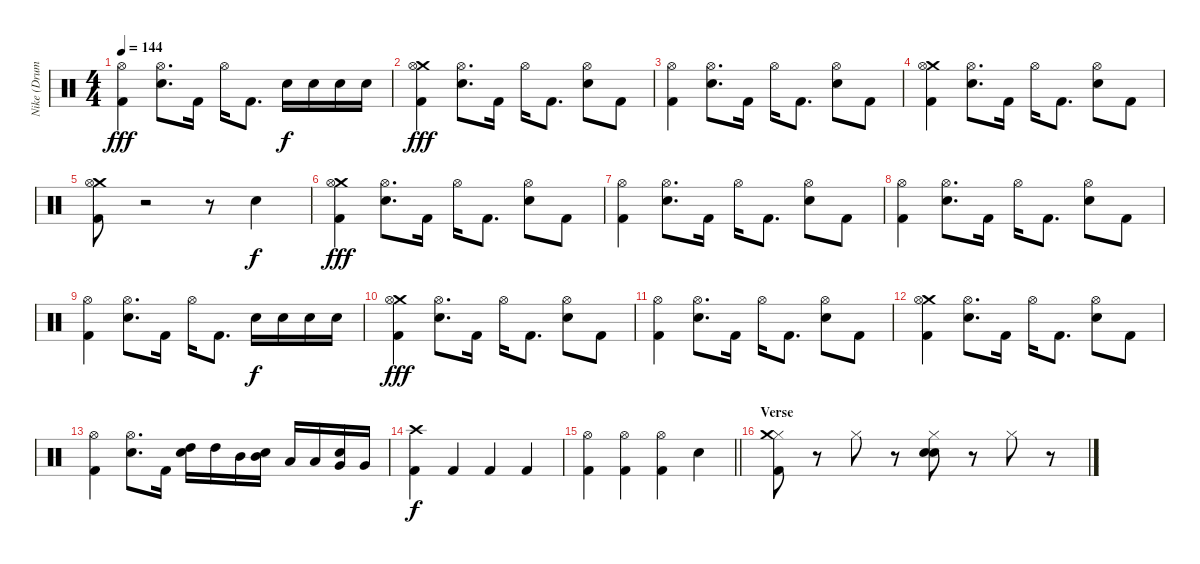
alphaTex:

\track ("Nike (Drums)" "Nike (Drum") {instrument percussion}
\staff {score}
\articulation defaults
\ts (4 4)
\tempo 144
\clef neutral
\ks c
("Kick (hit) 2" "Hi-Hat (open)").4{dy fff} ("Hi-Hat (open)" "Electric Snare (hit)").8{d} "Kick (hit) 2".16 "Hi-Hat (open)".16 "Kick (hit) 2".8{d} "Electric Snare (hit)".16{dy f} "Electric Snare (hit)".16 "Electric Snare (hit)".16 "Electric Snare (hit)".16 |
("Kick (hit) 2" "Crash medium (hit)" "Hi-Hat (open)").4{dy fff} ("Hi-Hat (open)" "Electric Snare (hit)").8{d} "Kick (hit) 2".16 "Hi-Hat (open)".16 "Kick (hit) 2".8{d} ("Hi-Hat (open)" "Electric Snare (hit)").8 "Kick (hit) 2".8 |
("Kick (hit) 2" "Hi-Hat (open)").4 ("Hi-Hat (open)" "Electric Snare (hit)").8{d} "Kick (hit) 2".16 "Hi-Hat (open)".16 "Kick (hit) 2".8{d} ("Hi-Hat (open)" "Electric Snare (hit)").8 "Kick (hit) 2".8 |
("Kick (hit) 2" "Crash medium (hit)" "Hi-Hat (open)").4 ("Hi-Hat (open)" "Electric Snare (hit)").8{d} "Kick (hit) 2".16 "Hi-Hat (open)".16 "Kick (hit) 2".8{d} ("Hi-Hat (open)" "Electric Snare (hit)").8 "Kick (hit) 2".8 |
("Kick (hit) 2" "Crash medium (hit)" "Hi-Hat (open)").8 r.2 r.8 "Snare (hit) 2".4{dy f} |
("Kick (hit) 2" "Crash medium (hit)" "Hi-Hat (open)").4{dy fff} ("Hi-Hat (open)" "Electric Snare (hit)").8{d} "Kick (hit) 2".16 "Hi-Hat (open)".16 "Kick (hit) 2".8{d} ("Hi-Hat (open)" "Electric Snare (hit)").8 "Kick (hit) 2".8 |
("Kick (hit) 2" "Hi-Hat (open)").4 ("Hi-Hat (open)" "Electric Snare (hit)").8{d} "Kick (hit) 2".16 "Hi-Hat (open)".16 "Kick (hit) 2".8{d} ("Hi-Hat (open)" "Electric Snare (hit)").8 "Kick (hit) 2".8 |
("Kick (hit) 2" "Hi-Hat (open)").4 ("Hi-Hat (open)" "Electric Snare (hit)").8{d} "Kick (hit) 2".16 "Hi-Hat (open)".16 "Kick (hit) 2".8{d} ("Hi-Hat (open)" "Electric Snare (hit)").8 "Kick (hit) 2".8 |
("Kick (hit) 2" "Hi-Hat (open)").4 ("Hi-Hat (open)" "Electric Snare (hit)").8{d} "Kick (hit) 2".16 "Hi-Hat (open)".16 "Kick (hit) 2".8{d} "Electric Snare (hit)".16{dy f} "Electric Snare (hit)".16 "Electric Snare (hit)".16 "Electric Snare (hit)".16 |
("Kick (hit) 2" "Crash medium (hit)" "Hi-Hat (open)").4{dy fff} ("Hi-Hat (open)" "Electric Snare (hit)").8{d} "Kick (hit) 2".16 "Hi-Hat (open)".16 "Kick (hit) 2".8{d} ("Hi-Hat (open)" "Electric Snare (hit)").8 "Kick (hit) 2".8 |
("Kick (hit) 2" "Hi-Hat (open)").4 ("Hi-Hat (open)" "Electric Snare (hit)").8{d} "Kick (hit) 2".16 "Hi-Hat (open)".16 "Kick (hit) 2".8{d} ("Hi-Hat (open)" "Electric Snare (hit)").8 "Kick (hit) 2".8 |
("Kick (hit) 2" "Crash medium (hit)" "Hi-Hat (open)").4 ("Hi-Hat (open)" "Electric Snare (hit)").8{d} "Kick (hit) 2".16 "Hi-Hat (open)".16 "Kick (hit) 2".8{d} ("Hi-Hat (open)" "Electric Snare (hit)").8 "Kick (hit) 2".8 |
("Kick (hit) 2" "Hi-Hat (open)").4 ("Hi-Hat (open)" "Electric Snare (hit)").8{d} "Kick (hit) 2".16 ("Electric Snare (hit)" "High Tom (hit)").16 "High Tom (hit)".16 "Mid Tom (hit)".16 ("Mid Tom (hit)" "Electric Snare (hit)").16 "Low Tom (hit)".16 "Low Tom (hit)".16 ("Very Low Tom (hit)" "Electric Snare (hit)").16 "Very Low Tom (hit)".16 |
("Crash high (hit)" "Kick (hit) 2").4{dy f} "Kick (hit) 2".4 "Kick (hit) 2".4 "Kick (hit) 2".4 |
\barLineRight lightlight
("Hi-Hat (open)" "Kick (hit) 2").4 ("Hi-Hat (open)" "Kick (hit) 2").4 ("Hi-Hat (open)" "Kick (hit) 2").4 "Electric Snare (hit)".4 |
\section ("" "Verse")
("Kick (hit) 2" "Hi-Hat (closed)" "Crash medium (hit)").8 r.8 "Hi-Hat (closed)".8 r.8 ("Electric Snare (hit)" "Hi-Hat (closed)" "Electric Snare (hit)").8 r.8 "Hi-Hat (closed)".8 r.8
